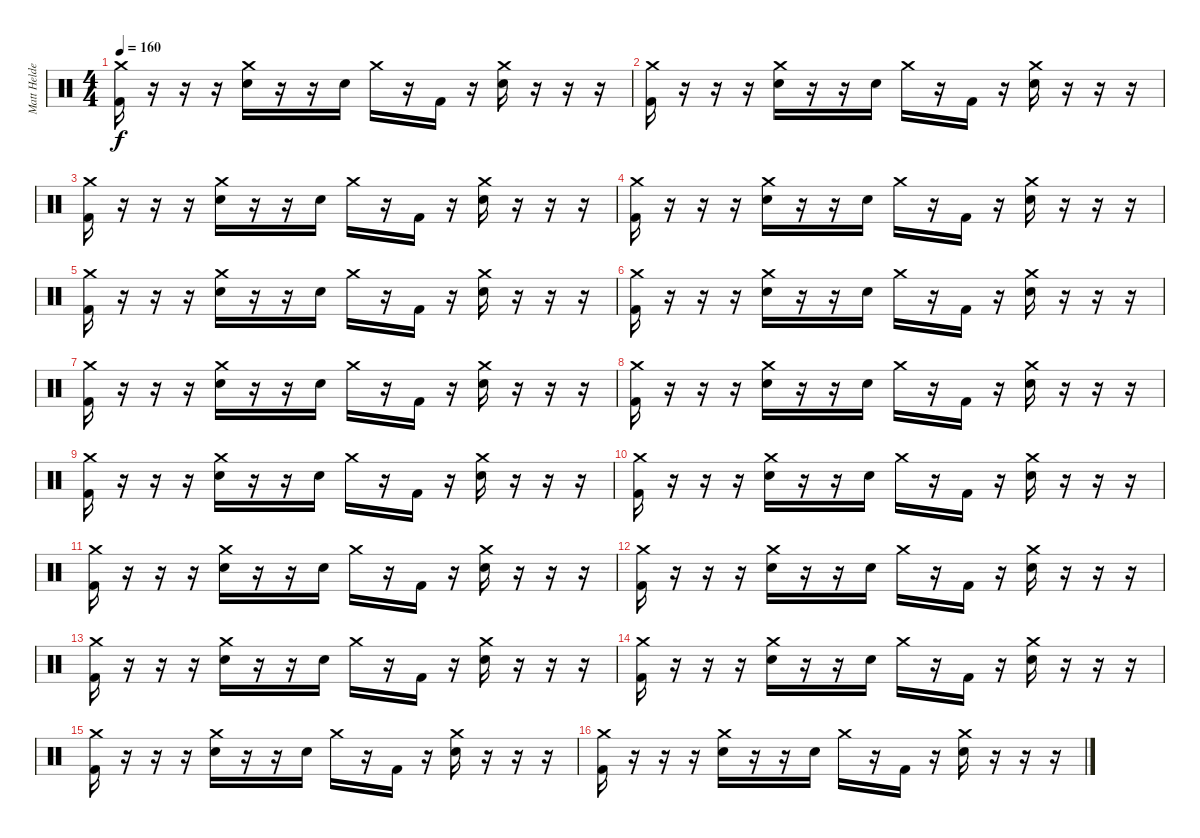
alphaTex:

\track ("Matt Helders" "Matt Helde") {instrument percussion}
\staff {score}
\articulation defaults
\ts (4 4)
\tempo 160
\clef neutral
\ks c
("Crash medium (hit)" "Kick (hit) 2").16{dy f} r.16 r.16 r.16 ("Crash medium (hit)" "Snare (hit) 2").16 r.16 r.16 "Snare (hit) 2".16 "Crash medium (hit)".16 r.16 "Kick (hit) 2".16 r.16 ("Crash medium (hit)" "Snare (hit) 2").16 r.16 r.16 r.16 |
("Crash medium (hit)" "Kick (hit) 2").16 r.16 r.16 r.16 ("Crash medium (hit)" "Snare (hit) 2").16 r.16 r.16 "Snare (hit) 2".16 "Crash medium (hit)".16 r.16 "Kick (hit) 2".16 r.16 ("Crash medium (hit)" "Snare (hit) 2").16 r.16 r.16 r.16 |
("Crash medium (hit)" "Kick (hit) 2").16 r.16 r.16 r.16 ("Crash medium (hit)" "Snare (hit) 2").16 r.16 r.16 "Snare (hit) 2".16 "Crash medium (hit)".16 r.16 "Kick (hit) 2".16 r.16 ("Crash medium (hit)" "Snare (hit) 2").16 r.16 r.16 r.16 |
("Crash medium (hit)" "Kick (hit) 2").16 r.16 r.16 r.16 ("Crash medium (hit)" "Snare (hit) 2").16 r.16 r.16 "Snare (hit) 2".16 "Crash medium (hit)".16 r.16 "Kick (hit) 2".16 r.16 ("Crash medium (hit)" "Snare (hit) 2").16 r.16 r.16 r.16 |
("Crash medium (hit)" "Kick (hit) 2").16 r.16 r.16 r.16 ("Crash medium (hit)" "Snare (hit) 2").16 r.16 r.16 "Snare (hit) 2".16 "Crash medium (hit)".16 r.16 "Kick (hit) 2".16 r.16 ("Crash medium (hit)" "Snare (hit) 2").16 r.16 r.16 r.16 |
("Crash medium (hit)" "Kick (hit) 2").16 r.16 r.16 r.16 ("Crash medium (hit)" "Snare (hit) 2").16 r.16 r.16 "Snare (hit) 2".16 "Crash medium (hit)".16 r.16 "Kick (hit) 2".16 r.16 ("Crash medium (hit)" "Snare (hit) 2").16 r.16 r.16 r.16 |
("Crash medium (hit)" "Kick (hit) 2").16 r.16 r.16 r.16 ("Crash medium (hit)" "Snare (hit) 2").16 r.16 r.16 "Snare (hit) 2".16 "Crash medium (hit)".16 r.16 "Kick (hit) 2".16 r.16 ("Crash medium (hit)" "Snare (hit) 2").16 r.16 r.16 r.16 |
("Crash medium (hit)" "Kick (hit) 2").16 r.16 r.16 r.16 ("Crash medium (hit)" "Snare (hit) 2").16 r.16 r.16 "Snare (hit) 2".16 "Crash medium (hit)".16 r.16 "Kick (hit) 2".16 r.16 ("Crash medium (hit)" "Snare (hit) 2").16 r.16 r.16 r.16 |
("Crash medium (hit)" "Kick (hit) 2").16 r.16 r.16 r.16 ("Crash medium (hit)" "Snare (hit) 2").16 r.16 r.16 "Snare (hit) 2".16 "Crash medium (hit)".16 r.16 "Kick (hit) 2".16 r.16 ("Crash medium (hit)" "Snare (hit) 2").16 r.16 r.16 r.16 |
("Crash medium (hit)" "Kick (hit) 2").16 r.16 r.16 r.16 ("Crash medium (hit)" "Snare (hit) 2").16 r.16 r.16 "Snare (hit) 2".16 "Crash medium (hit)".16 r.16 "Kick (hit) 2".16 r.16 ("Crash medium (hit)" "Snare (hit) 2").16 r.16 r.16 r.16 |
("Crash medium (hit)" "Kick (hit) 2").16 r.16 r.16 r.16 ("Crash medium (hit)" "Snare (hit) 2").16 r.16 r.16 "Snare (hit) 2".16 "Crash medium (hit)".16 r.16 "Kick (hit) 2".16 r.16 ("Crash medium (hit)" "Snare (hit) 2").16 r.16 r.16 r.16 |
("Crash medium (hit)" "Kick (hit) 2").16 r.16 r.16 r.16 ("Crash medium (hit)" "Snare (hit) 2").16 r.16 r.16 "Snare (hit) 2".16 "Crash medium (hit)".16 r.16 "Kick (hit) 2".16 r.16 ("Crash medium (hit)" "Snare (hit) 2").16 r.16 r.16 r.16 |
("Crash medium (hit)" "Kick (hit) 2").16 r.16 r.16 r.16 ("Crash medium (hit)" "Snare (hit) 2").16 r.16 r.16 "Snare (hit) 2".16 "Crash medium (hit)".16 r.16 "Kick (hit) 2".16 r.16 ("Crash medium (hit)" "Snare (hit) 2").16 r.16 r.16 r.16 |
("Crash medium (hit)" "Kick (hit) 2").16 r.16 r.16 r.16 ("Crash medium (hit)" "Snare (hit) 2").16 r.16 r.16 "Snare (hit) 2".16 "Crash medium (hit)".16 r.16 "Kick (hit) 2".16 r.16 ("Crash medium (hit)" "Snare (hit) 2").16 r.16 r.16 r.16 |
("Crash medium (hit)" "Kick (hit) 2").16 r.16 r.16 r.16 ("Crash medium (hit)" "Snare (hit) 2").16 r.16 r.16 "Snare (hit) 2".16 "Crash medium (hit)".16 r.16 "Kick (hit) 2".16 r.16 ("Crash medium (hit)" "Snare (hit) 2").16 r.16 r.16 r.16 |
("Crash medium (hit)" "Kick (hit) 2").16 r.16 r.16 r.16 ("Crash medium (hit)" "Snare (hit) 2").16 r.16 r.16 "Snare (hit) 2".16 "Crash medium (hit)".16 r.16 "Kick (hit) 2".16 r.16 ("Crash medium (hit)" "Snare (hit) 2").16 r.16 r.16 r.16
